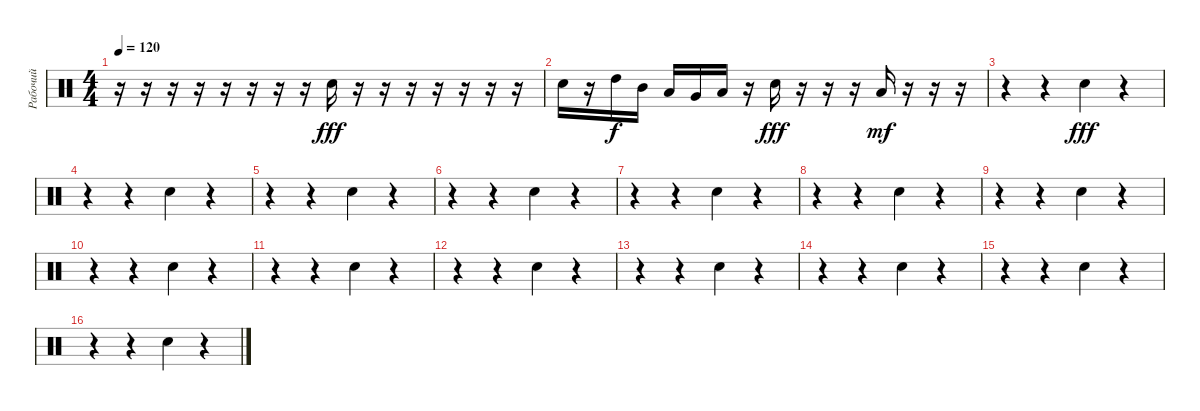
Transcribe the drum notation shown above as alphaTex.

\track ("Рабочий" "Рабочий") {instrument percussion}
\staff {score}
\articulation defaults
\ts (4 4)
\tempo 120
\clef neutral
\ks c
r.16{dy fff} r.16 r.16 r.16 r.16 r.16 r.16 r.16 "Snare (hit) 2".16 r.16 r.16 r.16 r.16 r.16 r.16 r.16 |
"Snare (hit) 2".16 r.16 "High Tom (hit)".16{dy f} "Mid Tom (hit)".16 "Low Tom (hit)".16 "Very Low Tom (hit)".16 "Low Floor Tom (hit)".16 r.16 "Snare (hit) 2".16{dy fff} r.16 r.16 r.16 "Low Floor Tom (hit)".16{dy mf} r.16 r.16 r.16 |
r.4 r.4 "Snare (hit) 2".4{dy fff} r.4 |
r.4 r.4 "Snare (hit) 2".4 r.4 |
r.4 r.4 "Snare (hit) 2".4 r.4 |
r.4 r.4 "Snare (hit) 2".4 r.4 |
r.4 r.4 "Snare (hit) 2".4 r.4 |
r.4 r.4 "Snare (hit) 2".4 r.4 |
r.4 r.4 "Snare (hit) 2".4 r.4 |
r.4 r.4 "Snare (hit) 2".4 r.4 |
r.4 r.4 "Snare (hit) 2".4 r.4 |
r.4 r.4 "Snare (hit) 2".4 r.4 |
r.4 r.4 "Snare (hit) 2".4 r.4 |
r.4 r.4 "Snare (hit) 2".4 r.4 |
r.4 r.4 "Snare (hit) 2".4 r.4 |
r.4 r.4 "Snare (hit) 2".4 r.4
